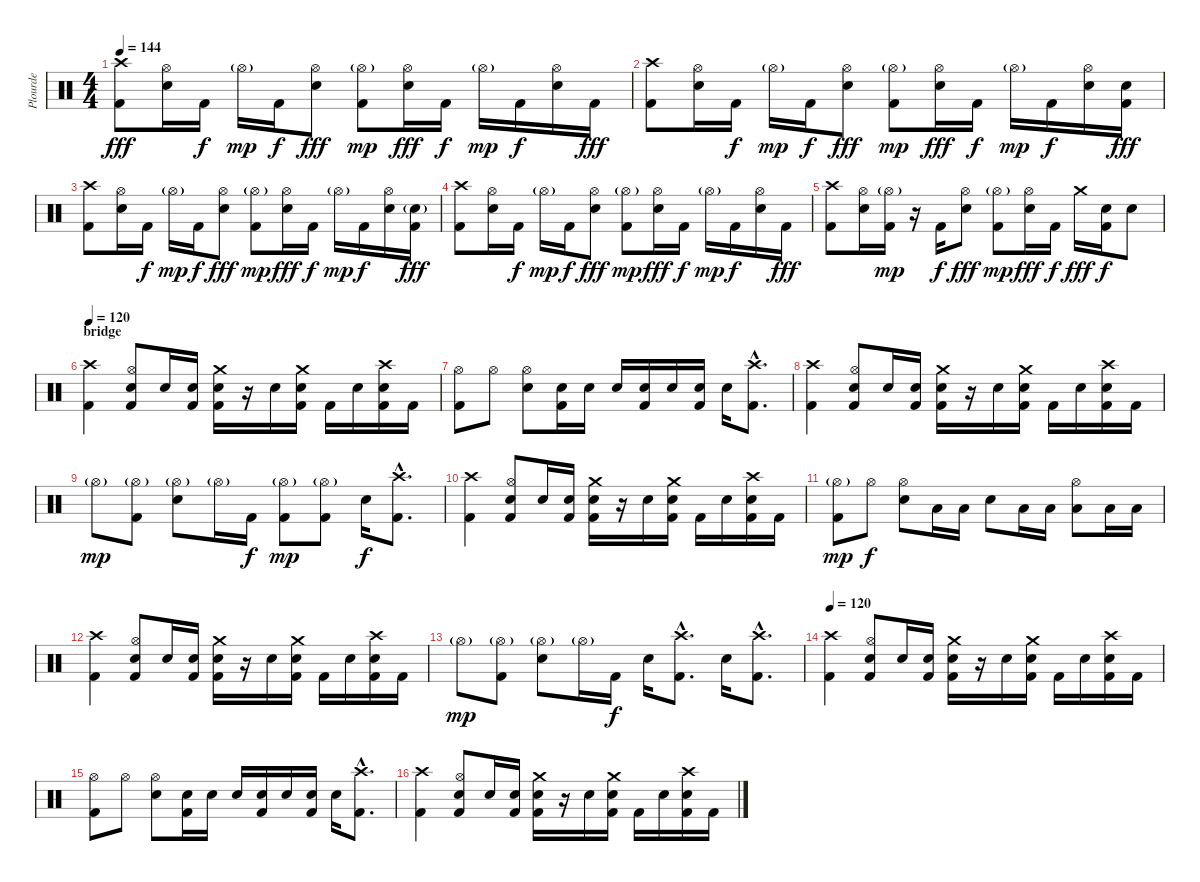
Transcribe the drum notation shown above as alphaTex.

\track ("Plourde" "Plourde") {instrument percussion}
\staff {score}
\articulation defaults
\ts (4 4)
\tempo 144
\clef neutral
\ks c
("Crash high (hit)" "Kick (hit) 2").8{dy fff} ("Hi-Hat (open)" "Electric Snare (hit)").16 "Kick (hit) 2".16{dy f} "Hi-Hat (open)"{g}.16{dy mp} "Kick (hit) 2".16{dy f} ("Hi-Hat (open)" "Electric Snare (hit)").8{dy fff} ("Hi-Hat (open)"{g} "Kick (hit) 2").8{dy mp} ("Hi-Hat (open)" "Electric Snare (hit)").16{dy fff} "Kick (hit) 2".16{dy f} "Hi-Hat (open)"{g}.16{dy mp} "Kick (hit) 2".16{dy f} ("Hi-Hat (open)" "Electric Snare (hit)").16 "Kick (hit) 2".16{dy fff} |
("Crash high (hit)" "Kick (hit) 2").8 ("Hi-Hat (open)" "Electric Snare (hit)").16 "Kick (hit) 2".16{dy f} "Hi-Hat (open)"{g}.16{dy mp} "Kick (hit) 2".16{dy f} ("Hi-Hat (open)" "Electric Snare (hit)").8{dy fff} ("Hi-Hat (open)"{g} "Kick (hit) 2").8{dy mp} ("Hi-Hat (open)" "Electric Snare (hit)").16{dy fff} "Kick (hit) 2".16{dy f} "Hi-Hat (open)"{g}.16{dy mp} "Kick (hit) 2".16{dy f} ("Hi-Hat (open)" "Electric Snare (hit)").16 ("Electric Snare (hit)" "Kick (hit) 2").16{dy fff} |
("Crash high (hit)" "Kick (hit) 2").8 ("Hi-Hat (open)" "Electric Snare (hit)").16 "Kick (hit) 2".16{dy f} "Hi-Hat (open)"{g}.16{dy mp} "Kick (hit) 2".16{dy f} ("Hi-Hat (open)" "Electric Snare (hit)").8{dy fff} ("Hi-Hat (open)"{g} "Kick (hit) 2").8{dy mp} ("Hi-Hat (open)" "Electric Snare (hit)").16{dy fff} "Kick (hit) 2".16{dy f} "Hi-Hat (open)"{g}.16{dy mp} "Kick (hit) 2".16{dy f} ("Hi-Hat (open)" "Electric Snare (hit)").16 ("Electric Snare (hit)"{g} "Kick (hit) 2").16{dy fff} |
("Crash high (hit)" "Kick (hit) 2").8 ("Hi-Hat (open)" "Electric Snare (hit)").16 "Kick (hit) 2".16{dy f} "Hi-Hat (open)"{g}.16{dy mp} "Kick (hit) 2".16{dy f} ("Hi-Hat (open)" "Electric Snare (hit)").8{dy fff} ("Hi-Hat (open)"{g} "Kick (hit) 2").8{dy mp} ("Hi-Hat (open)" "Electric Snare (hit)").16{dy fff} "Kick (hit) 2".16{dy f} "Hi-Hat (open)"{g}.16{dy mp} "Kick (hit) 2".16{dy f} ("Hi-Hat (open)" "Electric Snare (hit)").16 "Kick (hit) 2".16{dy fff} |
("Crash high (hit)" "Kick (hit) 2").8 ("Hi-Hat (open)" "Electric Snare (hit)").16 ("Hi-Hat (open)"{g} "Kick (hit) 2").16{dy mp} r.16 "Kick (hit) 2".16{dy f} ("Hi-Hat (open)" "Electric Snare (hit)").8{dy fff} ("Hi-Hat (open)"{g} "Kick (hit) 2").8{dy mp} ("Hi-Hat (open)" "Electric Snare (hit)").16{dy fff} "Kick (hit) 2".16{dy f} "Crash medium (hit)".16{dy fff} ("Electric Snare (hit)" "Kick (hit) 2").16{dy f} "Electric Snare (hit)".8 |
\section ("" "bridge")
\tempo 120
("Crash high (hit)" "Kick (hit) 2").4 ("Hi-Hat (open)" "Electric Snare (hit)" "Kick (hit) 2").8 "Electric Snare (hit)".16 ("Electric Snare (hit)" "Kick (hit) 2").16 ("Crash medium (hit)" "Electric Snare (hit)" "Kick (hit) 2").16 r.16 "Electric Snare (hit)".16 ("Crash medium (hit)" "Electric Snare (hit)" "Kick (hit) 2").16 "Kick (hit) 2".16 "Electric Snare (hit)".16 ("Crash high (hit)" "Electric Snare (hit)" "Kick (hit) 2").16 "Kick (hit) 2".16 |
("Hi-Hat (open)" "Kick (hit) 2").8 "Hi-Hat (open)".8 ("Hi-Hat (open)" "Electric Snare (hit)").8 ("Electric Snare (hit)" "Kick (hit) 2").16 "Electric Snare (hit)".16 "Electric Snare (hit)".16 ("Electric Snare (hit)" "Kick (hit) 2").16 "Electric Snare (hit)".16 ("Electric Snare (hit)" "Kick (hit) 2").16 "Electric Snare (hit)".16 ("Crash high (hit)"{hac} "Kick (hit) 2"{hac}).8{d} |
("Crash high (hit)" "Kick (hit) 2").4 ("Hi-Hat (open)" "Electric Snare (hit)" "Kick (hit) 2").8 "Electric Snare (hit)".16 ("Electric Snare (hit)" "Kick (hit) 2").16 ("Crash medium (hit)" "Electric Snare (hit)" "Kick (hit) 2").16 r.16 "Electric Snare (hit)".16 ("Crash medium (hit)" "Electric Snare (hit)" "Kick (hit) 2").16 "Kick (hit) 2".16 "Electric Snare (hit)".16 ("Crash high (hit)" "Electric Snare (hit)" "Kick (hit) 2").16 "Kick (hit) 2".16 |
"Hi-Hat (open)"{g}.8{dy mp} ("Hi-Hat (open)"{g} "Kick (hit) 2").8 ("Hi-Hat (open)"{g} "Electric Snare (hit)").8 "Hi-Hat (open)"{g}.16 "Kick (hit) 2".16{dy f} ("Hi-Hat (open)"{g} "Kick (hit) 2").8{dy mp} ("Hi-Hat (open)"{g} "Kick (hit) 2").8 "Electric Snare (hit)".16{dy f} ("Crash high (hit)"{hac} "Kick (hit) 2"{hac}).8{d} |
("Crash high (hit)" "Kick (hit) 2").4 ("Hi-Hat (open)" "Electric Snare (hit)" "Kick (hit) 2").8 "Electric Snare (hit)".16 ("Electric Snare (hit)" "Kick (hit) 2").16 ("Crash medium (hit)" "Electric Snare (hit)" "Kick (hit) 2").16 r.16 "Electric Snare (hit)".16 ("Crash medium (hit)" "Electric Snare (hit)" "Kick (hit) 2").16 "Kick (hit) 2".16 "Electric Snare (hit)".16 ("Crash high (hit)" "Electric Snare (hit)" "Kick (hit) 2").16 "Kick (hit) 2".16 |
("Hi-Hat (open)"{g} "Kick (hit) 2").8{dy mp} "Hi-Hat (open)".8{dy f} ("Hi-Hat (open)" "Electric Snare (hit)").8 "Low Tom (hit)".16 "Low Tom (hit)".16 "Electric Snare (hit)".8 "Low Floor Tom (hit)".16 "Low Floor Tom (hit)".16 ("Low Tom (hit)" "Hi-Hat (open)").8 "Low Tom (hit)".16 "Low Tom (hit)".16 |
("Crash high (hit)" "Kick (hit) 2").4 ("Hi-Hat (open)" "Electric Snare (hit)" "Kick (hit) 2").8 "Electric Snare (hit)".16 ("Electric Snare (hit)" "Kick (hit) 2").16 ("Crash medium (hit)" "Electric Snare (hit)" "Kick (hit) 2").16 r.16 "Electric Snare (hit)".16 ("Crash medium (hit)" "Electric Snare (hit)" "Kick (hit) 2").16 "Kick (hit) 2".16 "Electric Snare (hit)".16 ("Crash high (hit)" "Electric Snare (hit)" "Kick (hit) 2").16 "Kick (hit) 2".16 |
"Hi-Hat (open)"{g}.8{dy mp} ("Hi-Hat (open)"{g} "Kick (hit) 2").8 ("Hi-Hat (open)"{g} "Electric Snare (hit)").8 "Hi-Hat (open)"{g}.16 "Kick (hit) 2".16{dy f} "Electric Snare (hit)".16 ("Crash high (hit)"{hac} "Kick (hit) 2"{hac}).8{d} "Electric Snare (hit)".16 ("Crash high (hit)"{hac} "Kick (hit) 2"{hac}).8{d} |
\tempo 120
("Crash high (hit)" "Kick (hit) 2").4 ("Hi-Hat (open)" "Electric Snare (hit)" "Kick (hit) 2").8 "Electric Snare (hit)".16 ("Electric Snare (hit)" "Kick (hit) 2").16 ("Crash medium (hit)" "Electric Snare (hit)" "Kick (hit) 2").16 r.16 "Electric Snare (hit)".16 ("Crash medium (hit)" "Electric Snare (hit)" "Kick (hit) 2").16 "Kick (hit) 2".16 "Electric Snare (hit)".16 ("Crash high (hit)" "Electric Snare (hit)" "Kick (hit) 2").16 "Kick (hit) 2".16 |
("Hi-Hat (open)" "Kick (hit) 2").8 "Hi-Hat (open)".8 ("Hi-Hat (open)" "Electric Snare (hit)").8 ("Electric Snare (hit)" "Kick (hit) 2").16 "Electric Snare (hit)".16 "Electric Snare (hit)".16 ("Electric Snare (hit)" "Kick (hit) 2").16 "Electric Snare (hit)".16 ("Electric Snare (hit)" "Kick (hit) 2").16 "Electric Snare (hit)".16 ("Crash high (hit)"{hac} "Kick (hit) 2"{hac}).8{d} |
("Crash high (hit)" "Kick (hit) 2").4 ("Hi-Hat (open)" "Electric Snare (hit)" "Kick (hit) 2").8 "Electric Snare (hit)".16 ("Electric Snare (hit)" "Kick (hit) 2").16 ("Crash medium (hit)" "Electric Snare (hit)" "Kick (hit) 2").16 r.16 "Electric Snare (hit)".16 ("Crash medium (hit)" "Electric Snare (hit)" "Kick (hit) 2").16 "Kick (hit) 2".16 "Electric Snare (hit)".16 ("Crash high (hit)" "Electric Snare (hit)" "Kick (hit) 2").16 "Kick (hit) 2".16
